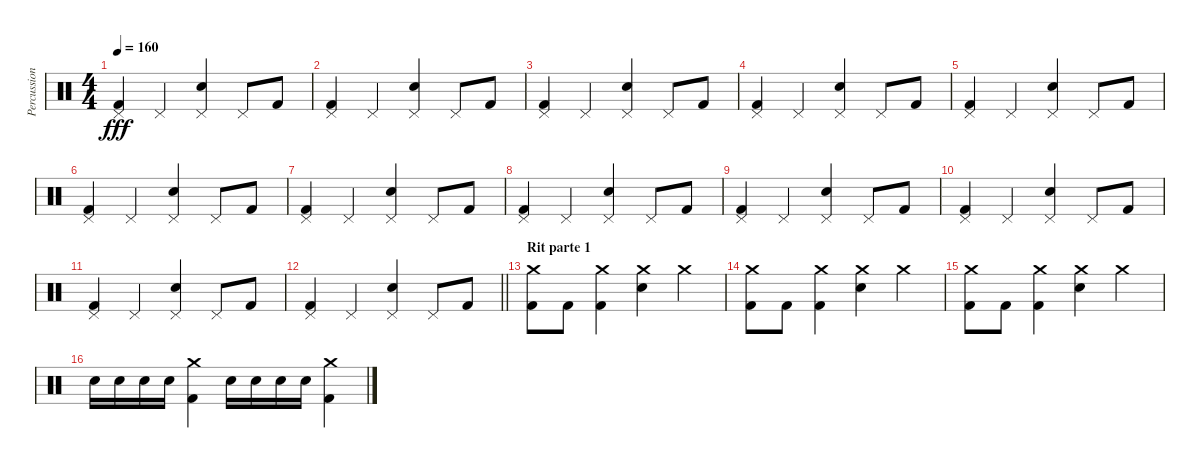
\track ("Percussioni" "Percussion") {instrument percussion}
\staff {score}
\articulation defaults
\ts (4 4)
\tempo 160
\clef neutral
\ks c
("Pedal Hi-Hat (hit)" "Kick (hit) 2").4{dy fff} "Pedal Hi-Hat (hit)".4 ("Pedal Hi-Hat (hit)" "Snare (hit) 2").4 "Pedal Hi-Hat (hit)".8 "Kick (hit) 2".8 |
("Pedal Hi-Hat (hit)" "Kick (hit) 2").4 "Pedal Hi-Hat (hit)".4 ("Pedal Hi-Hat (hit)" "Snare (hit) 2").4 "Pedal Hi-Hat (hit)".8 "Kick (hit) 2".8 |
("Pedal Hi-Hat (hit)" "Kick (hit) 2").4 "Pedal Hi-Hat (hit)".4 ("Pedal Hi-Hat (hit)" "Snare (hit) 2").4 "Pedal Hi-Hat (hit)".8 "Kick (hit) 2".8 |
("Pedal Hi-Hat (hit)" "Kick (hit) 2").4 "Pedal Hi-Hat (hit)".4 ("Pedal Hi-Hat (hit)" "Snare (hit) 2").4 "Pedal Hi-Hat (hit)".8 "Kick (hit) 2".8 |
("Pedal Hi-Hat (hit)" "Kick (hit) 2").4 "Pedal Hi-Hat (hit)".4 ("Pedal Hi-Hat (hit)" "Snare (hit) 2").4 "Pedal Hi-Hat (hit)".8 "Kick (hit) 2".8 |
("Pedal Hi-Hat (hit)" "Kick (hit) 2").4 "Pedal Hi-Hat (hit)".4 ("Pedal Hi-Hat (hit)" "Snare (hit) 2").4 "Pedal Hi-Hat (hit)".8 "Kick (hit) 2".8 |
("Pedal Hi-Hat (hit)" "Kick (hit) 2").4 "Pedal Hi-Hat (hit)".4 ("Pedal Hi-Hat (hit)" "Snare (hit) 2").4 "Pedal Hi-Hat (hit)".8 "Kick (hit) 2".8 |
("Pedal Hi-Hat (hit)" "Kick (hit) 2").4 "Pedal Hi-Hat (hit)".4 ("Pedal Hi-Hat (hit)" "Snare (hit) 2").4 "Pedal Hi-Hat (hit)".8 "Kick (hit) 2".8 |
("Pedal Hi-Hat (hit)" "Kick (hit) 2").4 "Pedal Hi-Hat (hit)".4 ("Pedal Hi-Hat (hit)" "Snare (hit) 2").4 "Pedal Hi-Hat (hit)".8 "Kick (hit) 2".8 |
("Pedal Hi-Hat (hit)" "Kick (hit) 2").4 "Pedal Hi-Hat (hit)".4 ("Pedal Hi-Hat (hit)" "Snare (hit) 2").4 "Pedal Hi-Hat (hit)".8 "Kick (hit) 2".8 |
("Pedal Hi-Hat (hit)" "Kick (hit) 2").4 "Pedal Hi-Hat (hit)".4 ("Pedal Hi-Hat (hit)" "Snare (hit) 2").4 "Pedal Hi-Hat (hit)".8 "Kick (hit) 2".8 |
\barLineRight lightlight
("Pedal Hi-Hat (hit)" "Kick (hit) 2").4 "Pedal Hi-Hat (hit)".4 ("Pedal Hi-Hat (hit)" "Snare (hit) 2").4 "Pedal Hi-Hat (hit)".8 "Kick (hit) 2".8 |
\section ("" "Rit parte 1")
("Crash medium (hit)" "Kick (hit) 2").8 "Kick (hit) 2".8 ("Crash medium (hit)" "Kick (hit) 2").4 ("Crash medium (hit)" "Snare (hit) 2").4 "Crash medium (hit)".4 |
("Crash medium (hit)" "Kick (hit) 2").8 "Kick (hit) 2".8 ("Crash medium (hit)" "Kick (hit) 2").4 ("Crash medium (hit)" "Snare (hit) 2").4 "Crash medium (hit)".4 |
("Crash medium (hit)" "Kick (hit) 2").8 "Kick (hit) 2".8 ("Crash medium (hit)" "Kick (hit) 2").4 ("Crash medium (hit)" "Snare (hit) 2").4 "Crash medium (hit)".4 |
"Snare (hit) 2".16 "Snare (hit) 2".16 "Snare (hit) 2".16 "Snare (hit) 2".16 ("Crash medium (hit)" "Kick (hit) 2").4 "Snare (hit) 2".16 "Snare (hit) 2".16 "Snare (hit) 2".16 "Snare (hit) 2".16 ("Crash medium (hit)" "Kick (hit) 2").4
